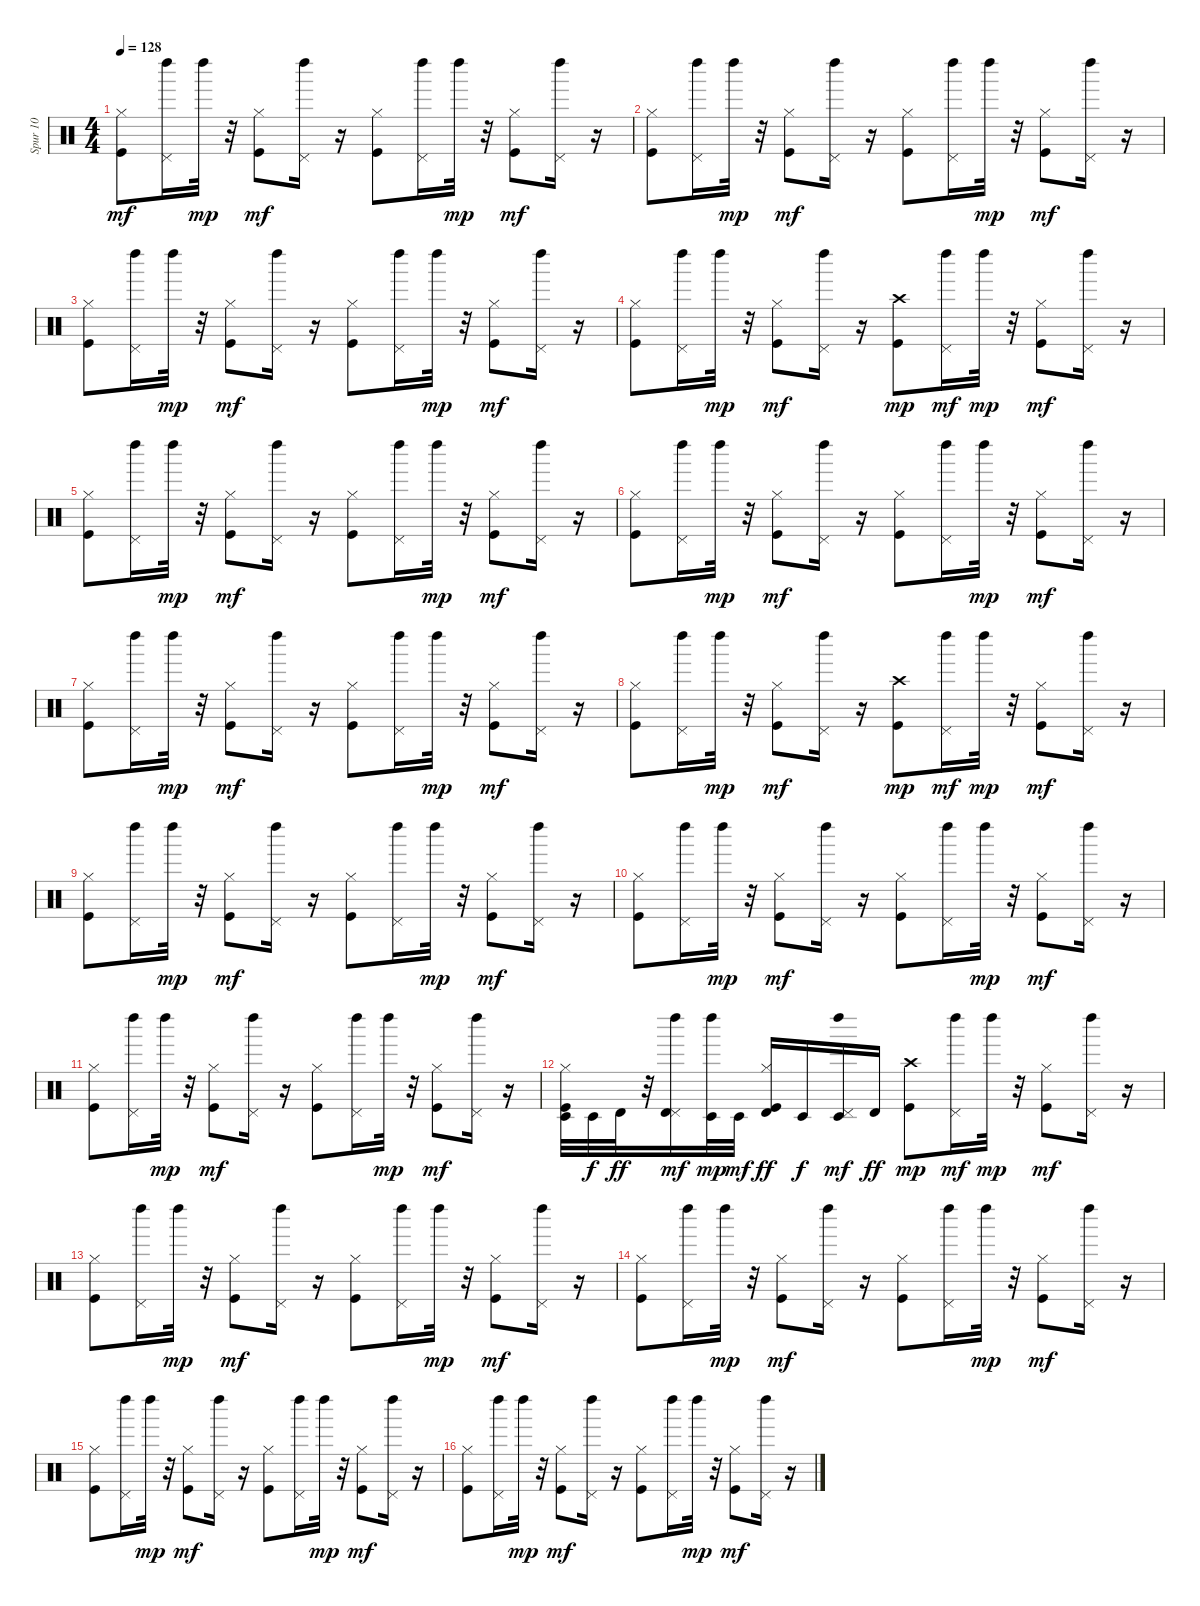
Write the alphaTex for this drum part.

\track ("Spur 10" "Spur 10") {instrument percussion}
\staff {score}
\articulation defaults
\ts (4 4)
\tempo 128
\clef neutral
\ks c
("Kick (hit)" "Hi-Hat (closed)").8{dy mf} ("Pedal Hi-Hat (hit)" "Left Maraca (hit)").16 "Left Maraca (hit)".32{dy mp} r.32 ("Kick (hit)" "Hi-Hat (closed)").8{dy mf} ("Pedal Hi-Hat (hit)" "Left Maraca (hit)").16 r.16 ("Kick (hit)" "Hi-Hat (closed)").8 ("Pedal Hi-Hat (hit)" "Left Maraca (hit)").16 "Left Maraca (hit)".32{dy mp} r.32 ("Kick (hit)" "Hi-Hat (closed)").8{dy mf} ("Pedal Hi-Hat (hit)" "Left Maraca (hit)").16 r.16 |
("Kick (hit)" "Hi-Hat (closed)").8 ("Pedal Hi-Hat (hit)" "Left Maraca (hit)").16 "Left Maraca (hit)".32{dy mp} r.32 ("Kick (hit)" "Hi-Hat (closed)").8{dy mf} ("Pedal Hi-Hat (hit)" "Left Maraca (hit)").16 r.16 ("Kick (hit)" "Hi-Hat (closed)").8 ("Pedal Hi-Hat (hit)" "Left Maraca (hit)").16 "Left Maraca (hit)".32{dy mp} r.32 ("Kick (hit)" "Hi-Hat (closed)").8{dy mf} ("Pedal Hi-Hat (hit)" "Left Maraca (hit)").16 r.16 |
("Kick (hit)" "Hi-Hat (closed)").8 ("Pedal Hi-Hat (hit)" "Left Maraca (hit)").16 "Left Maraca (hit)".32{dy mp} r.32 ("Kick (hit)" "Hi-Hat (closed)").8{dy mf} ("Pedal Hi-Hat (hit)" "Left Maraca (hit)").16 r.16 ("Kick (hit)" "Hi-Hat (closed)").8 ("Pedal Hi-Hat (hit)" "Left Maraca (hit)").16 "Left Maraca (hit)".32{dy mp} r.32 ("Kick (hit)" "Hi-Hat (closed)").8{dy mf} ("Pedal Hi-Hat (hit)" "Left Maraca (hit)").16 r.16 |
("Kick (hit)" "Hi-Hat (closed)").8 ("Pedal Hi-Hat (hit)" "Left Maraca (hit)").16 "Left Maraca (hit)".32{dy mp} r.32 ("Kick (hit)" "Hi-Hat (closed)").8{dy mf} ("Pedal Hi-Hat (hit)" "Left Maraca (hit)").16 r.16 ("Kick (hit)" "Crash high (hit)").8{dy mp} ("Pedal Hi-Hat (hit)" "Left Maraca (hit)").16{dy mf} "Left Maraca (hit)".32{dy mp} r.32 ("Kick (hit)" "Hi-Hat (closed)").8{dy mf} ("Pedal Hi-Hat (hit)" "Left Maraca (hit)").16 r.16 |
("Kick (hit)" "Hi-Hat (closed)").8 ("Pedal Hi-Hat (hit)" "Left Maraca (hit)").16 "Left Maraca (hit)".32{dy mp} r.32 ("Kick (hit)" "Hi-Hat (closed)").8{dy mf} ("Pedal Hi-Hat (hit)" "Left Maraca (hit)").16 r.16 ("Kick (hit)" "Hi-Hat (closed)").8 ("Pedal Hi-Hat (hit)" "Left Maraca (hit)").16 "Left Maraca (hit)".32{dy mp} r.32 ("Kick (hit)" "Hi-Hat (closed)").8{dy mf} ("Pedal Hi-Hat (hit)" "Left Maraca (hit)").16 r.16 |
("Kick (hit)" "Hi-Hat (closed)").8 ("Pedal Hi-Hat (hit)" "Left Maraca (hit)").16 "Left Maraca (hit)".32{dy mp} r.32 ("Kick (hit)" "Hi-Hat (closed)").8{dy mf} ("Pedal Hi-Hat (hit)" "Left Maraca (hit)").16 r.16 ("Kick (hit)" "Hi-Hat (closed)").8 ("Pedal Hi-Hat (hit)" "Left Maraca (hit)").16 "Left Maraca (hit)".32{dy mp} r.32 ("Kick (hit)" "Hi-Hat (closed)").8{dy mf} ("Pedal Hi-Hat (hit)" "Left Maraca (hit)").16 r.16 |
("Kick (hit)" "Hi-Hat (closed)").8 ("Pedal Hi-Hat (hit)" "Left Maraca (hit)").16 "Left Maraca (hit)".32{dy mp} r.32 ("Kick (hit)" "Hi-Hat (closed)").8{dy mf} ("Pedal Hi-Hat (hit)" "Left Maraca (hit)").16 r.16 ("Kick (hit)" "Hi-Hat (closed)").8 ("Pedal Hi-Hat (hit)" "Left Maraca (hit)").16 "Left Maraca (hit)".32{dy mp} r.32 ("Kick (hit)" "Hi-Hat (closed)").8{dy mf} ("Pedal Hi-Hat (hit)" "Left Maraca (hit)").16 r.16 |
("Kick (hit)" "Hi-Hat (closed)").8 ("Pedal Hi-Hat (hit)" "Left Maraca (hit)").16 "Left Maraca (hit)".32{dy mp} r.32 ("Kick (hit)" "Hi-Hat (closed)").8{dy mf} ("Pedal Hi-Hat (hit)" "Left Maraca (hit)").16 r.16 ("Kick (hit)" "Crash high (hit)").8{dy mp} ("Pedal Hi-Hat (hit)" "Left Maraca (hit)").16{dy mf} "Left Maraca (hit)".32{dy mp} r.32 ("Kick (hit)" "Hi-Hat (closed)").8{dy mf} ("Pedal Hi-Hat (hit)" "Left Maraca (hit)").16 r.16 |
("Kick (hit)" "Hi-Hat (closed)").8 ("Pedal Hi-Hat (hit)" "Left Maraca (hit)").16 "Left Maraca (hit)".32{dy mp} r.32 ("Kick (hit)" "Hi-Hat (closed)").8{dy mf} ("Pedal Hi-Hat (hit)" "Left Maraca (hit)").16 r.16 ("Kick (hit)" "Hi-Hat (closed)").8 ("Pedal Hi-Hat (hit)" "Left Maraca (hit)").16 "Left Maraca (hit)".32{dy mp} r.32 ("Kick (hit)" "Hi-Hat (closed)").8{dy mf} ("Pedal Hi-Hat (hit)" "Left Maraca (hit)").16 r.16 |
("Kick (hit)" "Hi-Hat (closed)").8 ("Pedal Hi-Hat (hit)" "Left Maraca (hit)").16 "Left Maraca (hit)".32{dy mp} r.32 ("Kick (hit)" "Hi-Hat (closed)").8{dy mf} ("Pedal Hi-Hat (hit)" "Left Maraca (hit)").16 r.16 ("Kick (hit)" "Hi-Hat (closed)").8 ("Pedal Hi-Hat (hit)" "Left Maraca (hit)").16 "Left Maraca (hit)".32{dy mp} r.32 ("Kick (hit)" "Hi-Hat (closed)").8{dy mf} ("Pedal Hi-Hat (hit)" "Left Maraca (hit)").16 r.16 |
("Kick (hit)" "Hi-Hat (closed)").8 ("Pedal Hi-Hat (hit)" "Left Maraca (hit)").16 "Left Maraca (hit)".32{dy mp} r.32 ("Kick (hit)" "Hi-Hat (closed)").8{dy mf} ("Pedal Hi-Hat (hit)" "Left Maraca (hit)").16 r.16 ("Kick (hit)" "Hi-Hat (closed)").8 ("Pedal Hi-Hat (hit)" "Left Maraca (hit)").16 "Left Maraca (hit)".32{dy mp} r.32 ("Kick (hit)" "Hi-Hat (closed)").8{dy mf} ("Pedal Hi-Hat (hit)" "Left Maraca (hit)").16 r.16 |
("Kick (hit)" "Hi-Hat (closed)" "Timbale low (hit)").32 "Timbale low (hit)".32{dy f} "Timbale high (hit)".32{dy ff} r.32 ("Pedal Hi-Hat (hit)" "Timbale high (hit)" "Left Maraca (hit)").16{dy mf} ("Timbale low (hit)" "Left Maraca (hit)").32{dy mp} "Timbale low (hit)".32{dy mf} ("Kick (hit)" "Hi-Hat (closed)" "Timbale high (hit)").16{dy ff} "Timbale low (hit)".16{dy f} ("Pedal Hi-Hat (hit)" "Timbale low (hit)" "Left Maraca (hit)").16{dy mf} "Timbale high (hit)".16{dy ff} ("Kick (hit)" "Crash high (hit)").8{dy mp} ("Pedal Hi-Hat (hit)" "Left Maraca (hit)").16{dy mf} "Left Maraca (hit)".32{dy mp} r.32 ("Kick (hit)" "Hi-Hat (closed)").8{dy mf} ("Pedal Hi-Hat (hit)" "Left Maraca (hit)").16 r.16 |
("Kick (hit)" "Hi-Hat (closed)").8 ("Pedal Hi-Hat (hit)" "Left Maraca (hit)").16 "Left Maraca (hit)".32{dy mp} r.32 ("Kick (hit)" "Hi-Hat (closed)").8{dy mf} ("Pedal Hi-Hat (hit)" "Left Maraca (hit)").16 r.16 ("Kick (hit)" "Hi-Hat (closed)").8 ("Pedal Hi-Hat (hit)" "Left Maraca (hit)").16 "Left Maraca (hit)".32{dy mp} r.32 ("Kick (hit)" "Hi-Hat (closed)").8{dy mf} ("Pedal Hi-Hat (hit)" "Left Maraca (hit)").16 r.16 |
("Kick (hit)" "Hi-Hat (closed)").8 ("Pedal Hi-Hat (hit)" "Left Maraca (hit)").16 "Left Maraca (hit)".32{dy mp} r.32 ("Kick (hit)" "Hi-Hat (closed)").8{dy mf} ("Pedal Hi-Hat (hit)" "Left Maraca (hit)").16 r.16 ("Kick (hit)" "Hi-Hat (closed)").8 ("Pedal Hi-Hat (hit)" "Left Maraca (hit)").16 "Left Maraca (hit)".32{dy mp} r.32 ("Kick (hit)" "Hi-Hat (closed)").8{dy mf} ("Pedal Hi-Hat (hit)" "Left Maraca (hit)").16 r.16 |
("Kick (hit)" "Hi-Hat (closed)").8 ("Pedal Hi-Hat (hit)" "Left Maraca (hit)").16 "Left Maraca (hit)".32{dy mp} r.32 ("Kick (hit)" "Hi-Hat (closed)").8{dy mf} ("Pedal Hi-Hat (hit)" "Left Maraca (hit)").16 r.16 ("Kick (hit)" "Hi-Hat (closed)").8 ("Pedal Hi-Hat (hit)" "Left Maraca (hit)").16 "Left Maraca (hit)".32{dy mp} r.32 ("Kick (hit)" "Hi-Hat (closed)").8{dy mf} ("Pedal Hi-Hat (hit)" "Left Maraca (hit)").16 r.16 |
("Kick (hit)" "Hi-Hat (closed)").8 ("Pedal Hi-Hat (hit)" "Left Maraca (hit)").16 "Left Maraca (hit)".32{dy mp} r.32 ("Kick (hit)" "Hi-Hat (closed)").8{dy mf} ("Pedal Hi-Hat (hit)" "Left Maraca (hit)").16 r.16 ("Kick (hit)" "Hi-Hat (closed)").8 ("Pedal Hi-Hat (hit)" "Left Maraca (hit)").16 "Left Maraca (hit)".32{dy mp} r.32 ("Kick (hit)" "Hi-Hat (closed)").8{dy mf} ("Pedal Hi-Hat (hit)" "Left Maraca (hit)").16 r.16
